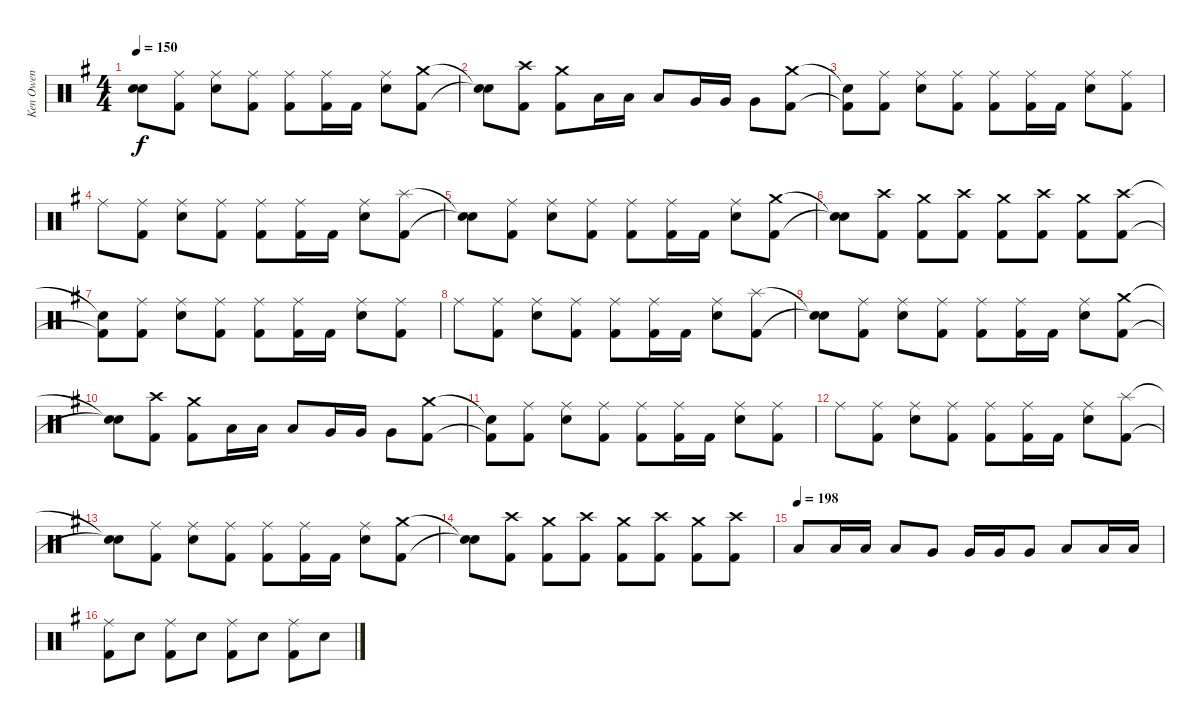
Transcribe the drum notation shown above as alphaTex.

\track ("Ken Owen" "Ken Owen") {instrument percussion}
\staff {score}
\articulation defaults
\ts (4 4)
\tempo 150
\clef neutral
\ks g
("Snare (hit)"{t} "Snare (hit)"{t}).8{dy f} ("Ride (middle)" "Kick (hit) 2").8 ("Ride (middle)" "Snare (hit) 2").8 ("Ride (middle)" "Kick (hit) 2").8 ("Ride (middle)" "Kick (hit) 2").8 ("Ride (middle)" "Kick (hit) 2").16 "Kick (hit) 2".16 ("Ride (middle)" "Snare (hit) 2").8 ("Crash medium (hit)" "Kick (hit) 2").8 |
("Snare (hit)"{t} "Snare (hit)"{t}).8 ("Crash high (hit)" "Kick (hit) 2").8 ("Crash medium (hit)" "Kick (hit) 2").8 "Low Tom (hit)".16 "Low Tom (hit)".16 "Low Tom (hit)".8 "Very Low Tom (hit)".16 "Very Low Tom (hit)".16 "Very Low Tom (hit)".8 ("Crash medium (hit)" "Kick (hit) 2").8 |
("Snare (hit)"{t} "Kick (hit) 2"{t}).8 ("Ride (middle)" "Kick (hit) 2").8 ("Ride (middle)" "Snare (hit) 2").8 ("Ride (middle)" "Kick (hit) 2").8 ("Ride (middle)" "Kick (hit) 2").8 ("Ride (middle)" "Kick (hit) 2").16 "Kick (hit) 2".16 ("Ride (middle)" "Snare (hit) 2").8 ("Ride (middle)" "Kick (hit) 2").8 |
"Ride (middle)".8 ("Ride (middle)" "Kick (hit) 2").8 ("Ride (middle)" "Snare (hit) 2").8 ("Ride (middle)" "Kick (hit) 2").8 ("Ride (middle)" "Kick (hit) 2").8 ("Ride (middle)" "Kick (hit) 2").16 "Kick (hit) 2".16 ("Ride (middle)" "Snare (hit) 2").8 ("Splash (hit)" "Kick (hit) 2").8 |
("Snare (hit)"{t} "Snare (hit)"{t}).8 ("Ride (middle)" "Kick (hit) 2").8 ("Ride (middle)" "Snare (hit) 2").8 ("Ride (middle)" "Kick (hit) 2").8 ("Ride (middle)" "Kick (hit) 2").8 ("Ride (middle)" "Kick (hit) 2").16 "Kick (hit) 2".16 ("Ride (middle)" "Snare (hit) 2").8 ("Crash medium (hit)" "Kick (hit) 2").8 |
("Snare (hit)"{t} "Snare (hit)"{t}).8 ("Crash high (hit)" "Kick (hit) 2").8 ("Crash medium (hit)" "Kick (hit) 2").8 ("Crash high (hit)" "Kick (hit) 2").8 ("Crash medium (hit)" "Kick (hit) 2").8 ("Crash high (hit)" "Kick (hit) 2").8 ("Crash medium (hit)" "Kick (hit) 2").8 ("Crash high (hit)" "Kick (hit) 2").8 |
("Snare (hit)"{t} "Kick (hit) 2"{t}).8 ("Ride (middle)" "Kick (hit) 2").8 ("Ride (middle)" "Snare (hit) 2").8 ("Ride (middle)" "Kick (hit) 2").8 ("Ride (middle)" "Kick (hit) 2").8 ("Ride (middle)" "Kick (hit) 2").16 "Kick (hit) 2".16 ("Ride (middle)" "Snare (hit) 2").8 ("Ride (middle)" "Kick (hit) 2").8 |
"Ride (middle)".8 ("Ride (middle)" "Kick (hit) 2").8 ("Ride (middle)" "Snare (hit) 2").8 ("Ride (middle)" "Kick (hit) 2").8 ("Ride (middle)" "Kick (hit) 2").8 ("Ride (middle)" "Kick (hit) 2").16 "Kick (hit) 2".16 ("Ride (middle)" "Snare (hit) 2").8 ("Splash (hit)" "Kick (hit) 2").8 |
("Snare (hit)"{t} "Snare (hit)"{t}).8 ("Ride (middle)" "Kick (hit) 2").8 ("Ride (middle)" "Snare (hit) 2").8 ("Ride (middle)" "Kick (hit) 2").8 ("Ride (middle)" "Kick (hit) 2").8 ("Ride (middle)" "Kick (hit) 2").16 "Kick (hit) 2".16 ("Ride (middle)" "Snare (hit) 2").8 ("Crash medium (hit)" "Kick (hit) 2").8 |
("Snare (hit)"{t} "Snare (hit)"{t}).8 ("Crash high (hit)" "Kick (hit) 2").8 ("Crash medium (hit)" "Kick (hit) 2").8 "Low Tom (hit)".16 "Low Tom (hit)".16 "Low Tom (hit)".8 "Very Low Tom (hit)".16 "Very Low Tom (hit)".16 "Very Low Tom (hit)".8 ("Crash medium (hit)" "Kick (hit) 2").8 |
("Snare (hit)"{t} "Kick (hit) 2"{t}).8 ("Ride (middle)" "Kick (hit) 2").8 ("Ride (middle)" "Snare (hit) 2").8 ("Ride (middle)" "Kick (hit) 2").8 ("Ride (middle)" "Kick (hit) 2").8 ("Ride (middle)" "Kick (hit) 2").16 "Kick (hit) 2".16 ("Ride (middle)" "Snare (hit) 2").8 ("Ride (middle)" "Kick (hit) 2").8 |
"Ride (middle)".8 ("Ride (middle)" "Kick (hit) 2").8 ("Ride (middle)" "Snare (hit) 2").8 ("Ride (middle)" "Kick (hit) 2").8 ("Ride (middle)" "Kick (hit) 2").8 ("Ride (middle)" "Kick (hit) 2").16 "Kick (hit) 2".16 ("Ride (middle)" "Snare (hit) 2").8 ("Splash (hit)" "Kick (hit) 2").8 |
("Snare (hit)"{t} "Snare (hit)"{t}).8 ("Ride (middle)" "Kick (hit) 2").8 ("Ride (middle)" "Snare (hit) 2").8 ("Ride (middle)" "Kick (hit) 2").8 ("Ride (middle)" "Kick (hit) 2").8 ("Ride (middle)" "Kick (hit) 2").16 "Kick (hit) 2".16 ("Ride (middle)" "Snare (hit) 2").8 ("Crash medium (hit)" "Kick (hit) 2").8 |
("Snare (hit)"{t} "Snare (hit)"{t}).8 ("Crash high (hit)" "Kick (hit) 2").8 ("Crash medium (hit)" "Kick (hit) 2").8 ("Crash high (hit)" "Kick (hit) 2").8 ("Crash medium (hit)" "Kick (hit) 2").8 ("Crash high (hit)" "Kick (hit) 2").8 ("Crash medium (hit)" "Kick (hit) 2").8 ("Crash high (hit)" "Kick (hit) 2").8 |
\tempo (198)
"Low Tom (hit)".8 "Low Tom (hit)".16 "Low Tom (hit)".16 "Low Tom (hit)".8 "Very Low Tom (hit)".8 "Very Low Tom (hit)".16 "Very Low Tom (hit)".16 "Very Low Tom (hit)".8 "Low Floor Tom (hit)".8 "Low Floor Tom (hit)".16 "Low Floor Tom (hit)".16 |
("Ride (middle)" "Kick (hit) 2").8 "Snare (hit) 2".8 ("Ride (middle)" "Kick (hit) 2").8 "Snare (hit) 2".8 ("Ride (middle)" "Kick (hit) 2").8 "Snare (hit) 2".8 ("Ride (middle)" "Kick (hit) 2").8 "Snare (hit) 2".8
